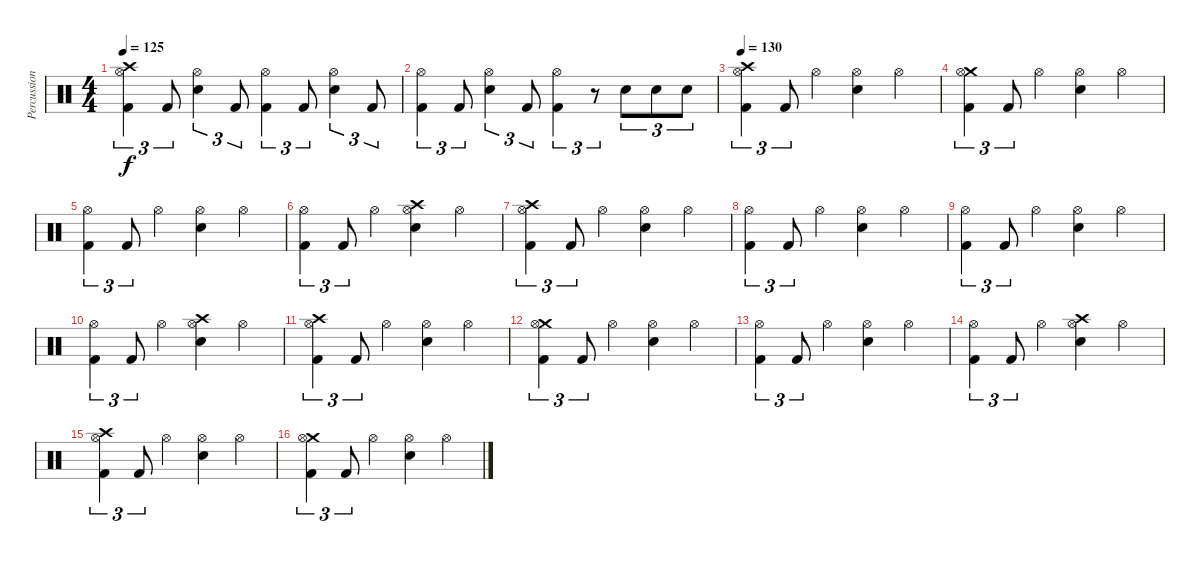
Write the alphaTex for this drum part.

\track ("Percussion" "Percussion") {instrument percussion}
\staff {score}
\articulation defaults
\ts (4 4)
\tempo 125
\clef neutral
\ks c
("Crash high (hit)" "Hi-Hat (open)" "Kick (hit) 2").4{tu (3 2) dy f} "Kick (hit) 2".8{tu (3 2)} ("Hi-Hat (open)" "Snare (hit) 2").4{tu (3 2)} "Kick (hit) 2".8{tu (3 2)} ("Hi-Hat (open)" "Kick (hit) 2").4{tu (3 2)} "Kick (hit) 2".8{tu (3 2)} ("Hi-Hat (open)" "Snare (hit) 2").4{tu (3 2)} "Kick (hit) 2".8{tu (3 2)} |
("Hi-Hat (open)" "Kick (hit) 2").4{tu (3 2)} "Kick (hit) 2".8{tu (3 2)} ("Hi-Hat (open)" "Snare (hit) 2").4{tu (3 2)} "Kick (hit) 2".8{tu (3 2)} ("Hi-Hat (open)" "Kick (hit) 2").4{tu (3 2)} r.8{tu (3 2)} "Snare (hit) 2".8{tu (3 2)} "Snare (hit) 2".8{tu (3 2)} "Snare (hit) 2".8{tu (3 2)} |
\tempo 130
("Crash high (hit)" "Hi-Hat (open)" "Kick (hit) 2").4{tu (3 2)} "Kick (hit) 2".8{tu (3 2)} "Hi-Hat (open)".4 ("Hi-Hat (open)" "Snare (hit) 2").4 "Hi-Hat (open)".4 |
("Crash medium (hit)" "Hi-Hat (open)" "Kick (hit) 2").4{tu (3 2)} "Kick (hit) 2".8{tu (3 2)} "Hi-Hat (open)".4 ("Hi-Hat (open)" "Snare (hit) 2").4 "Hi-Hat (open)".4 |
("Hi-Hat (open)" "Kick (hit) 2").4{tu (3 2)} "Kick (hit) 2".8{tu (3 2)} "Hi-Hat (open)".4 ("Hi-Hat (open)" "Snare (hit) 2").4 "Hi-Hat (open)".4 |
("Hi-Hat (open)" "Kick (hit) 2").4{tu (3 2)} "Kick (hit) 2".8{tu (3 2)} "Hi-Hat (open)".4 ("Crash high (hit)" "Hi-Hat (open)" "Snare (hit) 2").4 "Hi-Hat (open)".4 |
("Crash high (hit)" "Hi-Hat (open)" "Kick (hit) 2").4{tu (3 2)} "Kick (hit) 2".8{tu (3 2)} "Hi-Hat (open)".4 ("Hi-Hat (open)" "Snare (hit) 2").4 "Hi-Hat (open)".4 |
("Hi-Hat (open)" "Kick (hit) 2").4{tu (3 2)} "Kick (hit) 2".8{tu (3 2)} "Hi-Hat (open)".4 ("Hi-Hat (open)" "Snare (hit) 2").4 "Hi-Hat (open)".4 |
("Hi-Hat (open)" "Kick (hit) 2").4{tu (3 2)} "Kick (hit) 2".8{tu (3 2)} "Hi-Hat (open)".4 ("Hi-Hat (open)" "Snare (hit) 2").4 "Hi-Hat (open)".4 |
("Hi-Hat (open)" "Kick (hit) 2").4{tu (3 2)} "Kick (hit) 2".8{tu (3 2)} "Hi-Hat (open)".4 ("Crash high (hit)" "Hi-Hat (open)" "Snare (hit) 2").4 "Hi-Hat (open)".4 |
("Crash high (hit)" "Hi-Hat (open)" "Kick (hit) 2").4{tu (3 2)} "Kick (hit) 2".8{tu (3 2)} "Hi-Hat (open)".4 ("Hi-Hat (open)" "Snare (hit) 2").4 "Hi-Hat (open)".4 |
("Crash medium (hit)" "Hi-Hat (open)" "Kick (hit) 2").4{tu (3 2)} "Kick (hit) 2".8{tu (3 2)} "Hi-Hat (open)".4 ("Hi-Hat (open)" "Snare (hit) 2").4 "Hi-Hat (open)".4 |
("Hi-Hat (open)" "Kick (hit) 2").4{tu (3 2)} "Kick (hit) 2".8{tu (3 2)} "Hi-Hat (open)".4 ("Hi-Hat (open)" "Snare (hit) 2").4 "Hi-Hat (open)".4 |
("Hi-Hat (open)" "Kick (hit) 2").4{tu (3 2)} "Kick (hit) 2".8{tu (3 2)} "Hi-Hat (open)".4 ("Crash high (hit)" "Hi-Hat (open)" "Snare (hit) 2").4 "Hi-Hat (open)".4 |
("Crash high (hit)" "Hi-Hat (open)" "Kick (hit) 2").4{tu (3 2)} "Kick (hit) 2".8{tu (3 2)} "Hi-Hat (open)".4 ("Hi-Hat (open)" "Snare (hit) 2").4 "Hi-Hat (open)".4 |
("Crash medium (hit)" "Hi-Hat (open)" "Kick (hit) 2").4{tu (3 2)} "Kick (hit) 2".8{tu (3 2)} "Hi-Hat (open)".4 ("Hi-Hat (open)" "Snare (hit) 2").4 "Hi-Hat (open)".4
